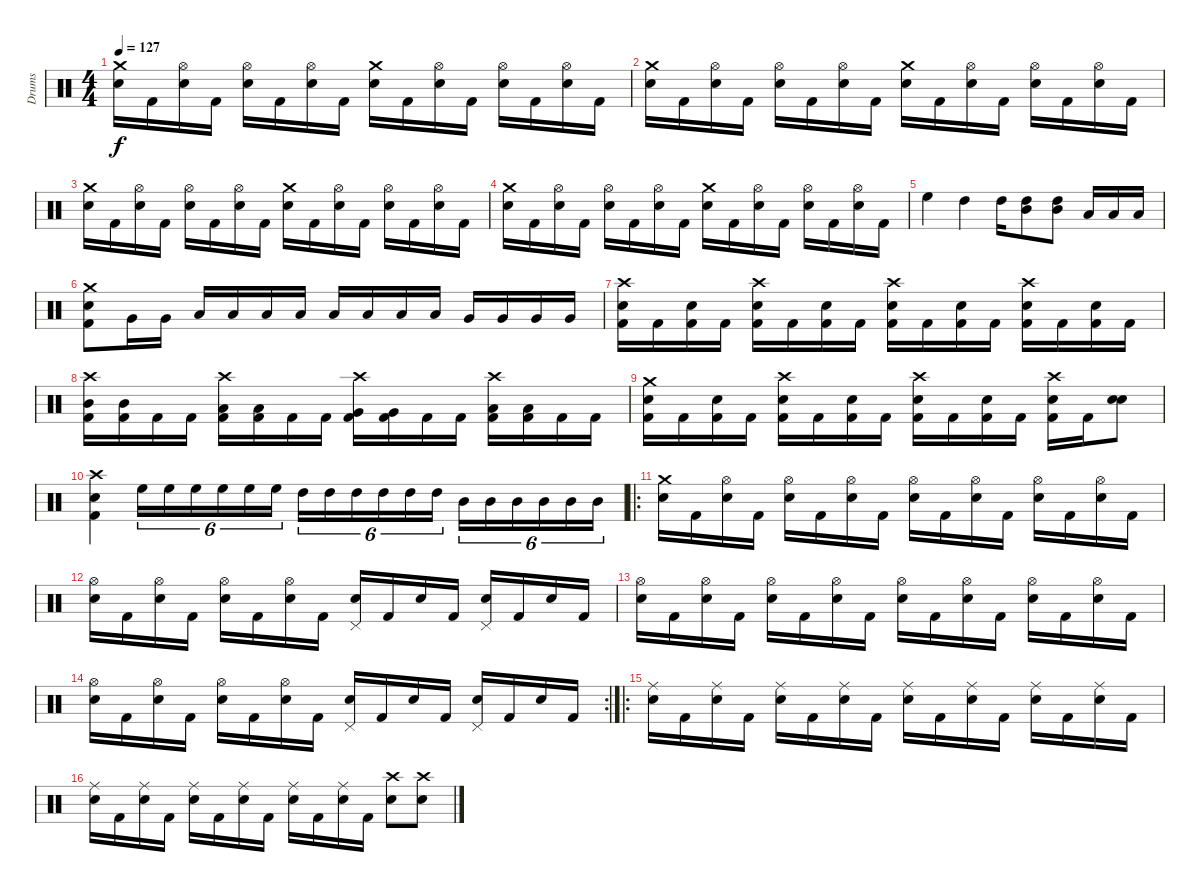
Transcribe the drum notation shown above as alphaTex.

\track ("Drums" "Drums") {instrument percussion}
\staff {score}
\articulation defaults
\ts (4 4)
\tempo 127
\clef neutral
\ks c
("Crash medium (hit)" "Snare (hit) 2").16{dy f} "Kick (hit) 2".16 ("Hi-Hat (open)" "Snare (hit) 2").16 "Kick (hit) 2".16 ("Hi-Hat (open)" "Snare (hit) 2").16 "Kick (hit) 2".16 ("Hi-Hat (open)" "Snare (hit) 2").16 "Kick (hit) 2".16 ("Crash medium (hit)" "Snare (hit) 2").16 "Kick (hit) 2".16 ("Hi-Hat (open)" "Snare (hit) 2").16 "Kick (hit) 2".16 ("Hi-Hat (open)" "Snare (hit) 2").16 "Kick (hit) 2".16 ("Hi-Hat (open)" "Snare (hit) 2").16 "Kick (hit) 2".16 |
("Crash medium (hit)" "Snare (hit) 2").16 "Kick (hit) 2".16 ("Hi-Hat (open)" "Snare (hit) 2").16 "Kick (hit) 2".16 ("Hi-Hat (open)" "Snare (hit) 2").16 "Kick (hit) 2".16 ("Hi-Hat (open)" "Snare (hit) 2").16 "Kick (hit) 2".16 ("Crash medium (hit)" "Snare (hit) 2").16 "Kick (hit) 2".16 ("Hi-Hat (open)" "Snare (hit) 2").16 "Kick (hit) 2".16 ("Hi-Hat (open)" "Snare (hit) 2").16 "Kick (hit) 2".16 ("Hi-Hat (open)" "Snare (hit) 2").16 "Kick (hit) 2".16 |
("Crash medium (hit)" "Snare (hit) 2").16 "Kick (hit) 2".16 ("Hi-Hat (open)" "Snare (hit) 2").16 "Kick (hit) 2".16 ("Hi-Hat (open)" "Snare (hit) 2").16 "Kick (hit) 2".16 ("Hi-Hat (open)" "Snare (hit) 2").16 "Kick (hit) 2".16 ("Crash medium (hit)" "Snare (hit) 2").16 "Kick (hit) 2".16 ("Hi-Hat (open)" "Snare (hit) 2").16 "Kick (hit) 2".16 ("Hi-Hat (open)" "Snare (hit) 2").16 "Kick (hit) 2".16 ("Hi-Hat (open)" "Snare (hit) 2").16 "Kick (hit) 2".16 |
("Crash medium (hit)" "Snare (hit) 2").16 "Kick (hit) 2".16 ("Hi-Hat (open)" "Snare (hit) 2").16 "Kick (hit) 2".16 ("Hi-Hat (open)" "Snare (hit) 2").16 "Kick (hit) 2".16 ("Hi-Hat (open)" "Snare (hit) 2").16 "Kick (hit) 2".16 ("Crash medium (hit)" "Snare (hit) 2").16 "Kick (hit) 2".16 ("Hi-Hat (open)" "Snare (hit) 2").16 "Kick (hit) 2".16 ("Hi-Hat (open)" "Snare (hit) 2").16 "Kick (hit) 2".16 ("Hi-Hat (open)" "Snare (hit) 2").16 "Kick (hit) 2".16 |
"High Floor Tom (hit)".4 "High Tom (hit)".4 "High Tom (hit)".16 ("High Tom (hit)" "Mid Tom (hit)").8 ("High Tom (hit)" "Mid Tom (hit)").8 "Low Tom (hit)".16 "Low Tom (hit)".16 "Low Tom (hit)".16 |
("Crash medium (hit)" "Snare (hit) 2" "Kick (hit) 2").8 "Very Low Tom (hit)".16 "Very Low Tom (hit)".16 "Low Tom (hit)".16 "Low Tom (hit)".16 "Low Tom (hit)".16 "Low Tom (hit)".16 "Low Floor Tom (hit)".16 "Low Floor Tom (hit)".16 "Low Floor Tom (hit)".16 "Low Floor Tom (hit)".16 "Very Low Tom (hit)".16 "Very Low Tom (hit)".16 "Very Low Tom (hit)".16 "Very Low Tom (hit)".16 |
("Crash high (hit)" "Snare (hit) 2" "Kick (hit) 2").16 "Kick (hit) 2".16 ("Snare (hit) 2" "Kick (hit) 2").16 "Kick (hit) 2".16 ("Crash high (hit)" "Snare (hit) 2" "Kick (hit) 2").16 "Kick (hit) 2".16 ("Snare (hit) 2" "Kick (hit) 2").16 "Kick (hit) 2".16 ("Crash high (hit)" "Snare (hit) 2" "Kick (hit) 2").16 "Kick (hit) 2".16 ("Snare (hit) 2" "Kick (hit) 2").16 "Kick (hit) 2".16 ("Crash high (hit)" "Snare (hit) 2" "Kick (hit) 2").16 "Kick (hit) 2".16 ("Snare (hit) 2" "Kick (hit) 2").16 "Kick (hit) 2".16 |
("Crash high (hit)" "Mid Tom (hit)" "Kick (hit) 2").16 ("Mid Tom (hit)" "Kick (hit) 2").16 "Kick (hit) 2".16 "Kick (hit) 2".16 ("Crash high (hit)" "Low Tom (hit)" "Kick (hit) 2").16 ("Low Tom (hit)" "Kick (hit) 2").16 "Kick (hit) 2".16 "Kick (hit) 2".16 ("Crash high (hit)" "Very Low Tom (hit)" "Kick (hit) 2").16 ("Very Low Tom (hit)" "Kick (hit) 2").16 "Kick (hit) 2".16 "Kick (hit) 2".16 ("Crash high (hit)" "Low Floor Tom (hit)" "Kick (hit) 2").16 ("Low Floor Tom (hit)" "Kick (hit) 2").16 "Kick (hit) 2".16 "Kick (hit) 2".16 |
("Crash medium (hit)" "Snare (hit) 2" "Kick (hit) 2").16 "Kick (hit) 2".16 ("Snare (hit) 2" "Kick (hit) 2").16 "Kick (hit) 2".16 ("Crash high (hit)" "Snare (hit) 2" "Kick (hit) 2").16 "Kick (hit) 2".16 ("Snare (hit) 2" "Kick (hit) 2").16 "Kick (hit) 2".16 ("Crash high (hit)" "Snare (hit) 2" "Kick (hit) 2").16 "Kick (hit) 2".16 ("Snare (hit) 2" "Kick (hit) 2").16 "Kick (hit) 2".16 ("Crash high (hit)" "Snare (hit) 2" "Kick (hit) 2").16 "Kick (hit) 2".16 ("Snare (hit) 2" "Snare (hit) 2").8 |
("Crash high (hit)" "Snare (hit) 2" "Kick (hit) 2").4 "High Floor Tom (hit)".16{tu (6 4)} "High Floor Tom (hit)".16{tu (6 4)} "High Floor Tom (hit)".16{tu (6 4)} "High Floor Tom (hit)".16{tu (6 4)} "High Floor Tom (hit)".16{tu (6 4)} "High Floor Tom (hit)".16{tu (6 4)} "High Tom (hit)".16{tu (6 4)} "High Tom (hit)".16{tu (6 4)} "High Tom (hit)".16{tu (6 4)} "High Tom (hit)".16{tu (6 4)} "High Tom (hit)".16{tu (6 4)} "High Tom (hit)".16{tu (6 4)} "Mid Tom (hit)".16{tu (6 4)} "Mid Tom (hit)".16{tu (6 4)} "Mid Tom (hit)".16{tu (6 4)} "Mid Tom (hit)".16{tu (6 4)} "Mid Tom (hit)".16{tu (6 4)} "Mid Tom (hit)".16{tu (6 4)} |
\ro
("Crash medium (hit)" "Snare (hit) 2").16 "Kick (hit) 2".16 ("Hi-Hat (open)" "Snare (hit) 2").16 "Kick (hit) 2".16 ("Hi-Hat (open)" "Snare (hit) 2").16 "Kick (hit) 2".16 ("Hi-Hat (open)" "Snare (hit) 2").16 "Kick (hit) 2".16 ("Hi-Hat (open)" "Snare (hit) 2").16 "Kick (hit) 2".16 ("Hi-Hat (open)" "Snare (hit) 2").16 "Kick (hit) 2".16 ("Hi-Hat (open)" "Snare (hit) 2").16 "Kick (hit) 2".16 ("Hi-Hat (open)" "Snare (hit) 2").16 "Kick (hit) 2".16 |
("Hi-Hat (open)" "Snare (hit) 2").16 "Kick (hit) 2".16 ("Hi-Hat (open)" "Snare (hit) 2").16 "Kick (hit) 2".16 ("Hi-Hat (open)" "Snare (hit) 2").16 "Kick (hit) 2".16 ("Hi-Hat (open)" "Snare (hit) 2").16 "Kick (hit) 2".16 ("Pedal Hi-Hat (hit)" "Snare (hit) 2").16 "Kick (hit) 2".16 "Snare (hit) 2".16 "Kick (hit) 2".16 ("Pedal Hi-Hat (hit)" "Snare (hit) 2").16 "Kick (hit) 2".16 "Snare (hit) 2".16 "Kick (hit) 2".16 |
("Hi-Hat (open)" "Snare (hit) 2").16 "Kick (hit) 2".16 ("Hi-Hat (open)" "Snare (hit) 2").16 "Kick (hit) 2".16 ("Hi-Hat (open)" "Snare (hit) 2").16 "Kick (hit) 2".16 ("Hi-Hat (open)" "Snare (hit) 2").16 "Kick (hit) 2".16 ("Hi-Hat (open)" "Snare (hit) 2").16 "Kick (hit) 2".16 ("Hi-Hat (open)" "Snare (hit) 2").16 "Kick (hit) 2".16 ("Hi-Hat (open)" "Snare (hit) 2").16 "Kick (hit) 2".16 ("Hi-Hat (open)" "Snare (hit) 2").16 "Kick (hit) 2".16 |
\rc 2
("Hi-Hat (open)" "Snare (hit) 2").16 "Kick (hit) 2".16 ("Hi-Hat (open)" "Snare (hit) 2").16 "Kick (hit) 2".16 ("Hi-Hat (open)" "Snare (hit) 2").16 "Kick (hit) 2".16 ("Hi-Hat (open)" "Snare (hit) 2").16 "Kick (hit) 2".16 ("Pedal Hi-Hat (hit)" "Snare (hit) 2").16 "Kick (hit) 2".16 "Snare (hit) 2".16 "Kick (hit) 2".16 ("Pedal Hi-Hat (hit)" "Snare (hit) 2").16 "Kick (hit) 2".16 "Snare (hit) 2".16 "Kick (hit) 2".16 |
\ro
("Ride (middle)" "Snare (hit) 2").16 "Kick (hit) 2".16 ("Ride (middle)" "Snare (hit) 2").16 "Kick (hit) 2".16 ("Ride (middle)" "Snare (hit) 2").16 "Kick (hit) 2".16 ("Ride (middle)" "Snare (hit) 2").16 "Kick (hit) 2".16 ("Ride (middle)" "Snare (hit) 2").16 "Kick (hit) 2".16 ("Ride (middle)" "Snare (hit) 2").16 "Kick (hit) 2".16 ("Ride (middle)" "Snare (hit) 2").16 "Kick (hit) 2".16 ("Ride (middle)" "Snare (hit) 2").16 "Kick (hit) 2".16 |
("Ride (middle)" "Snare (hit) 2").16 "Kick (hit) 2".16 ("Ride (middle)" "Snare (hit) 2").16 "Kick (hit) 2".16 ("Ride (middle)" "Snare (hit) 2").16 "Kick (hit) 2".16 ("Ride (middle)" "Snare (hit) 2").16 "Kick (hit) 2".16 ("Ride (middle)" "Snare (hit) 2").16 "Kick (hit) 2".16 ("Ride (middle)" "Snare (hit) 2").16 "Kick (hit) 2".16 ("Crash high (hit)" "Snare (hit) 2").8 ("Crash high (hit)" "Snare (hit) 2").8
